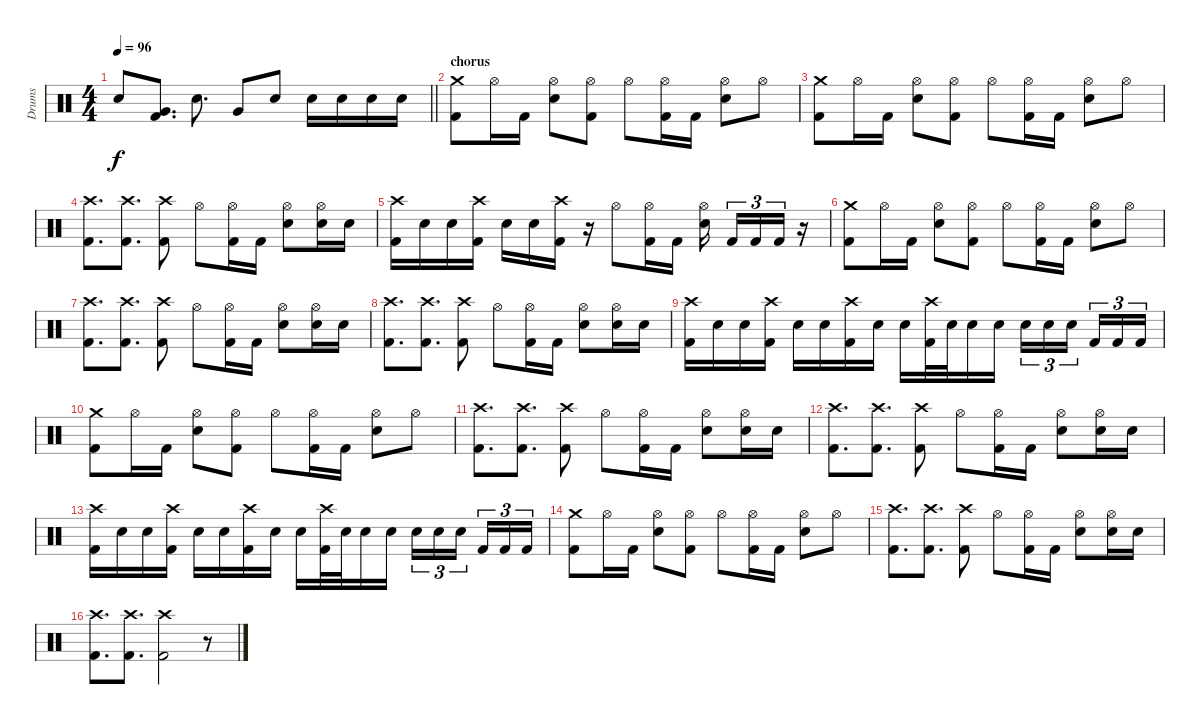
\track ("Drums" "Drums") {instrument percussion}
\staff {score}
\articulation defaults
\ts (4 4)
\tempo 96
\clef neutral
\barLineRight lightlight
\ks c "Electric Snare (hit)".8{dy f}
("Very Low Tom (hit)" "Kick (hit) 2").8{d} "Electric Snare (hit)".8{d} "Very Low Tom (hit)".8 "Electric Snare (hit)".8 "Electric Snare (hit)".16 "Electric Snare (hit)".16 "Electric Snare (hit)".16 "Electric Snare (hit)".16 |
\section ("" "chorus")
("Crash medium (hit)" "Kick (hit) 2").8 "Hi-Hat (open)".16 "Kick (hit) 2".16 ("Hi-Hat (open)" "Electric Snare (hit)").8 ("Hi-Hat (open)" "Kick (hit) 2").8 "Hi-Hat (open)".8 ("Hi-Hat (open)" "Kick (hit) 2").16 "Kick (hit) 2".16 ("Hi-Hat (open)" "Electric Snare (hit)").8 "Hi-Hat (open)".8 |
("Crash medium (hit)" "Kick (hit) 2").8 "Hi-Hat (open)".16 "Kick (hit) 2".16 ("Hi-Hat (open)" "Electric Snare (hit)").8 ("Hi-Hat (open)" "Kick (hit) 2").8 "Hi-Hat (open)".8 ("Hi-Hat (open)" "Kick (hit) 2").16 "Kick (hit) 2".16 ("Hi-Hat (open)" "Electric Snare (hit)").8 "Hi-Hat (open)".8 |
("Crash high (hit)" "Kick (hit) 2").8{d} ("Crash high (hit)" "Kick (hit) 2").8{d} ("Crash high (hit)" "Kick (hit) 2").8 "Hi-Hat (open)".8 ("Hi-Hat (open)" "Kick (hit) 2").16 "Kick (hit) 2".16 ("Hi-Hat (open)" "Electric Snare (hit)").8 ("Hi-Hat (open)" "Electric Snare (hit)").16 "Electric Snare (hit)".16 |
("Crash high (hit)" "Kick (hit) 2").16 "Electric Snare (hit)".16 "Electric Snare (hit)".16 ("Crash high (hit)" "Kick (hit) 2").16 "Electric Snare (hit)".16 "Electric Snare (hit)".16 ("Crash high (hit)" "Kick (hit) 2").16 r.16 "Hi-Hat (open)".8 ("Hi-Hat (open)" "Kick (hit) 2").16 "Kick (hit) 2".16 ("Hi-Hat (open)" "Electric Snare (hit)").16{beam splitsecondary} "Kick (hit) 2".16{tu (3 2)} "Kick (hit) 2".16{tu (3 2)} "Kick (hit) 2".16{tu (3 2)} r.16 |
("Crash medium (hit)" "Kick (hit) 2").8 "Hi-Hat (open)".16 "Kick (hit) 2".16 ("Hi-Hat (open)" "Electric Snare (hit)").8 ("Hi-Hat (open)" "Kick (hit) 2").8 "Hi-Hat (open)".8 ("Hi-Hat (open)" "Kick (hit) 2").16 "Kick (hit) 2".16 ("Hi-Hat (open)" "Electric Snare (hit)").8 "Hi-Hat (open)".8 |
("Crash high (hit)" "Kick (hit) 2").8{d} ("Crash high (hit)" "Kick (hit) 2").8{d} ("Crash high (hit)" "Kick (hit) 2").8 "Hi-Hat (open)".8 ("Hi-Hat (open)" "Kick (hit) 2").16 "Kick (hit) 2".16 ("Hi-Hat (open)" "Electric Snare (hit)").8 ("Hi-Hat (open)" "Electric Snare (hit)").16 "Electric Snare (hit)".16 |
("Crash high (hit)" "Kick (hit) 2").8{d} ("Crash high (hit)" "Kick (hit) 2").8{d} ("Crash high (hit)" "Kick (hit) 2").8 "Hi-Hat (open)".8 ("Hi-Hat (open)" "Kick (hit) 2").16 "Kick (hit) 2".16 ("Hi-Hat (open)" "Electric Snare (hit)").8 ("Hi-Hat (open)" "Electric Snare (hit)").16 "Electric Snare (hit)".16 |
("Crash high (hit)" "Kick (hit) 2").16 "Electric Snare (hit)".16 "Electric Snare (hit)".16 ("Crash high (hit)" "Kick (hit) 2").16 "Electric Snare (hit)".16 "Electric Snare (hit)".16 ("Crash high (hit)" "Kick (hit) 2").16 "Electric Snare (hit)".16 "Electric Snare (hit)".16 ("Crash high (hit)" "Kick (hit) 2").32 "Electric Snare (hit)".32 "Electric Snare (hit)".16 "Electric Snare (hit)".16 "Electric Snare (hit)".16{tu (3 2)} "Electric Snare (hit)".16{tu (3 2)} "Electric Snare (hit)".16{tu (3 2) beam splitsecondary} "Kick (hit) 2".16{tu (3 2)} "Kick (hit) 2".16{tu (3 2)} "Kick (hit) 2".16{tu (3 2)} |
("Crash medium (hit)" "Kick (hit) 2").8 "Hi-Hat (open)".16 "Kick (hit) 2".16 ("Hi-Hat (open)" "Electric Snare (hit)").8 ("Hi-Hat (open)" "Kick (hit) 2").8 "Hi-Hat (open)".8 ("Hi-Hat (open)" "Kick (hit) 2").16 "Kick (hit) 2".16 ("Hi-Hat (open)" "Electric Snare (hit)").8 "Hi-Hat (open)".8 |
("Crash high (hit)" "Kick (hit) 2").8{d} ("Crash high (hit)" "Kick (hit) 2").8{d} ("Crash high (hit)" "Kick (hit) 2").8 "Hi-Hat (open)".8 ("Hi-Hat (open)" "Kick (hit) 2").16 "Kick (hit) 2".16 ("Hi-Hat (open)" "Electric Snare (hit)").8 ("Hi-Hat (open)" "Electric Snare (hit)").16 "Electric Snare (hit)".16 |
("Crash high (hit)" "Kick (hit) 2").8{d} ("Crash high (hit)" "Kick (hit) 2").8{d} ("Crash high (hit)" "Kick (hit) 2").8 "Hi-Hat (open)".8 ("Hi-Hat (open)" "Kick (hit) 2").16 "Kick (hit) 2".16 ("Hi-Hat (open)" "Electric Snare (hit)").8 ("Hi-Hat (open)" "Electric Snare (hit)").16 "Electric Snare (hit)".16 |
("Crash high (hit)" "Kick (hit) 2").16 "Electric Snare (hit)".16 "Electric Snare (hit)".16 ("Crash high (hit)" "Kick (hit) 2").16 "Electric Snare (hit)".16 "Electric Snare (hit)".16 ("Crash high (hit)" "Kick (hit) 2").16 "Electric Snare (hit)".16 "Electric Snare (hit)".16 ("Crash high (hit)" "Kick (hit) 2").32 "Electric Snare (hit)".32 "Electric Snare (hit)".16 "Electric Snare (hit)".16 "Electric Snare (hit)".16{tu (3 2)} "Electric Snare (hit)".16{tu (3 2)} "Electric Snare (hit)".16{tu (3 2) beam splitsecondary} "Kick (hit) 2".16{tu (3 2)} "Kick (hit) 2".16{tu (3 2)} "Kick (hit) 2".16{tu (3 2)} |
("Crash medium (hit)" "Kick (hit) 2").8 "Hi-Hat (open)".16 "Kick (hit) 2".16 ("Hi-Hat (open)" "Electric Snare (hit)").8 ("Hi-Hat (open)" "Kick (hit) 2").8 "Hi-Hat (open)".8 ("Hi-Hat (open)" "Kick (hit) 2").16 "Kick (hit) 2".16 ("Hi-Hat (open)" "Electric Snare (hit)").8 "Hi-Hat (open)".8 |
("Crash high (hit)" "Kick (hit) 2").8{d} ("Crash high (hit)" "Kick (hit) 2").8{d} ("Crash high (hit)" "Kick (hit) 2").8 "Hi-Hat (open)".8 ("Hi-Hat (open)" "Kick (hit) 2").16 "Kick (hit) 2".16 ("Hi-Hat (open)" "Electric Snare (hit)").8 ("Hi-Hat (open)" "Electric Snare (hit)").16 "Electric Snare (hit)".16 |
("Crash high (hit)" "Kick (hit) 2").8{d} ("Crash high (hit)" "Kick (hit) 2").8{d} ("Crash high (hit)" "Kick (hit) 2").2 r.8
